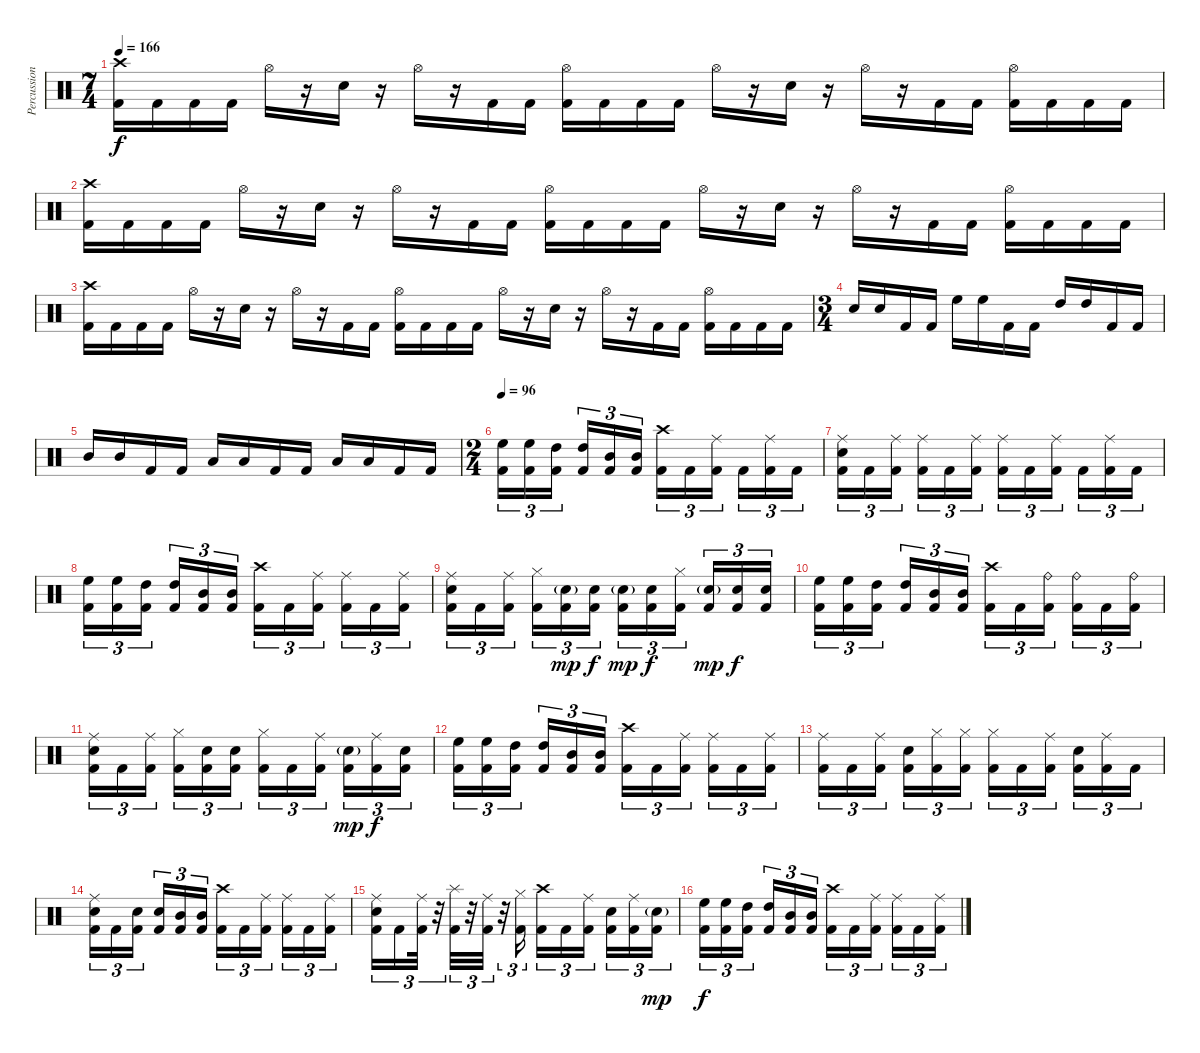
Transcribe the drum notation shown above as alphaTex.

\track ("Percussion" "Percussion") {instrument percussion}
\staff {score}
\articulation defaults
\ts (7 4)
\tempo 166
\clef neutral
\ks c
("Crash high (hit)" "Kick (hit) 2").16{dy f} "Kick (hit) 2".16 "Kick (hit) 2".16 "Kick (hit) 2".16 "Hi-Hat (open)".16 r.16 "Electric Snare (hit)".16 r.16 "Hi-Hat (open)".16 r.16 "Kick (hit) 2".16 "Kick (hit) 2".16 ("Hi-Hat (open)" "Kick (hit) 2").16 "Kick (hit) 2".16 "Kick (hit) 2".16 "Kick (hit) 2".16 "Hi-Hat (open)".16 r.16 "Electric Snare (hit)".16 r.16 "Hi-Hat (open)".16 r.16 "Kick (hit) 2".16 "Kick (hit) 2".16 ("Hi-Hat (open)" "Kick (hit) 2").16 "Kick (hit) 2".16 "Kick (hit) 2".16 "Kick (hit) 2".16 |
("Crash high (hit)" "Kick (hit) 2").16 "Kick (hit) 2".16 "Kick (hit) 2".16 "Kick (hit) 2".16 "Hi-Hat (open)".16 r.16 "Electric Snare (hit)".16 r.16 "Hi-Hat (open)".16 r.16 "Kick (hit) 2".16 "Kick (hit) 2".16 ("Hi-Hat (open)" "Kick (hit) 2").16 "Kick (hit) 2".16 "Kick (hit) 2".16 "Kick (hit) 2".16 "Hi-Hat (open)".16 r.16 "Electric Snare (hit)".16 r.16 "Hi-Hat (open)".16 r.16 "Kick (hit) 2".16 "Kick (hit) 2".16 ("Hi-Hat (open)" "Kick (hit) 2").16 "Kick (hit) 2".16 "Kick (hit) 2".16 "Kick (hit) 2".16 |
("Crash high (hit)" "Kick (hit) 2").16 "Kick (hit) 2".16 "Kick (hit) 2".16 "Kick (hit) 2".16 "Hi-Hat (open)".16 r.16 "Electric Snare (hit)".16 r.16 "Hi-Hat (open)".16 r.16 "Kick (hit) 2".16 "Kick (hit) 2".16 ("Hi-Hat (open)" "Kick (hit) 2").16 "Kick (hit) 2".16 "Kick (hit) 2".16 "Kick (hit) 2".16 "Hi-Hat (open)".16 r.16 "Electric Snare (hit)".16 r.16 "Hi-Hat (open)".16 r.16 "Kick (hit) 2".16 "Kick (hit) 2".16 ("Hi-Hat (open)" "Kick (hit) 2").16 "Kick (hit) 2".16 "Kick (hit) 2".16 "Kick (hit) 2".16 |
\ts (3 4)
"Electric Snare (hit)".16 "Electric Snare (hit)".16 "Kick (hit) 2".16 "Kick (hit) 2".16 "High Floor Tom (hit)".16 "High Floor Tom (hit)".16 "Kick (hit) 2".16 "Kick (hit) 2".16 "High Tom (hit)".16 "High Tom (hit)".16 "Kick (hit) 2".16 "Kick (hit) 2".16 |
"Mid Tom (hit)".16 "Mid Tom (hit)".16 "Kick (hit) 2".16 "Kick (hit) 2".16 "Low Tom (hit)".16 "Low Tom (hit)".16 "Kick (hit) 2".16 "Kick (hit) 2".16 "Low Floor Tom (hit)".16 "Low Floor Tom (hit)".16 "Kick (hit) 2".16 "Kick (hit) 2".16 |
\ts (2 4)
\tempo 96
("High Floor Tom (hit)" "Kick (hit) 2").16{tu (3 2)} ("High Floor Tom (hit)" "Kick (hit) 2").16{tu (3 2)} ("High Tom (hit)" "Kick (hit) 2").16{tu (3 2)} ("High Tom (hit)" "Kick (hit) 2").16{tu (3 2)} ("Mid Tom (hit)" "Kick (hit) 2").16{tu (3 2)} ("Mid Tom (hit)" "Kick (hit) 2").16{tu (3 2)} ("Crash high (hit)" "Kick (hit) 2").16{tu (3 2)} "Kick (hit) 2".16{tu (3 2)} ("Ride (middle)" "Kick (hit) 2").16{tu (3 2)} "Kick (hit) 2".16{tu (3 2)} ("Ride (middle)" "Kick (hit) 2").16{tu (3 2)} "Kick (hit) 2".16{tu (3 2)} |
("Ride (middle)" "Electric Snare (hit)" "Kick (hit) 2").16{tu (3 2)} "Kick (hit) 2".16{tu (3 2)} ("Ride (middle)" "Kick (hit) 2").16{tu (3 2)} ("Ride (middle)" "Kick (hit) 2").16{tu (3 2)} "Kick (hit) 2".16{tu (3 2)} ("Ride (middle)" "Kick (hit) 2").16{tu (3 2)} ("Ride (middle)" "Kick (hit) 2").16{tu (3 2)} "Kick (hit) 2".16{tu (3 2)} ("Ride (middle)" "Kick (hit) 2").16{tu (3 2)} "Kick (hit) 2".16{tu (3 2)} ("Ride (middle)" "Kick (hit) 2").16{tu (3 2)} "Kick (hit) 2".16{tu (3 2)} |
("High Floor Tom (hit)" "Kick (hit) 2").16{tu (3 2)} ("High Floor Tom (hit)" "Kick (hit) 2").16{tu (3 2)} ("High Tom (hit)" "Kick (hit) 2").16{tu (3 2)} ("High Tom (hit)" "Kick (hit) 2").16{tu (3 2)} ("Mid Tom (hit)" "Kick (hit) 2").16{tu (3 2)} ("Mid Tom (hit)" "Kick (hit) 2").16{tu (3 2)} ("Crash high (hit)" "Kick (hit) 2").16{tu (3 2)} "Kick (hit) 2".16{tu (3 2)} ("Ride (middle)" "Kick (hit) 2").16{tu (3 2)} ("Ride (middle)" "Kick (hit) 2").16{tu (3 2)} "Kick (hit) 2".16{tu (3 2)} ("Ride (middle)" "Kick (hit) 2").16{tu (3 2)} |
("Ride (middle)" "Electric Snare (hit)" "Kick (hit) 2").16{tu (3 2)} "Kick (hit) 2".16{tu (3 2)} ("Ride (middle)" "Kick (hit) 2").16{tu (3 2)} ("Hi-Hat (closed)" "Kick (hit) 2").16{tu (3 2)} ("Electric Snare (hit)"{g} "Kick (hit) 2").16{tu (3 2) dy mp} ("Electric Snare (hit)" "Kick (hit) 2").16{tu (3 2) dy f} ("Electric Snare (hit)"{g} "Kick (hit) 2").16{tu (3 2) dy mp} ("Electric Snare (hit)" "Kick (hit) 2").16{tu (3 2) dy f} ("Hi-Hat (closed)" "Kick (hit) 2").16{tu (3 2)} ("Electric Snare (hit)"{g} "Kick (hit) 2").16{tu (3 2) dy mp} ("Electric Snare (hit)" "Kick (hit) 2").16{tu (3 2) dy f} ("Electric Snare (hit)" "Kick (hit) 2").16{tu (3 2)} |
("High Floor Tom (hit)" "Kick (hit) 2").16{tu (3 2)} ("High Floor Tom (hit)" "Kick (hit) 2").16{tu (3 2)} ("High Tom (hit)" "Kick (hit) 2").16{tu (3 2)} ("High Tom (hit)" "Kick (hit) 2").16{tu (3 2)} ("Mid Tom (hit)" "Kick (hit) 2").16{tu (3 2)} ("Mid Tom (hit)" "Kick (hit) 2").16{tu (3 2)} ("Crash high (hit)" "Kick (hit) 2").16{tu (3 2)} "Kick (hit) 2".16{tu (3 2)} ("Ride (bell)" "Kick (hit) 2").16{tu (3 2)} ("Ride (bell)" "Kick (hit) 2").16{tu (3 2)} "Kick (hit) 2".16{tu (3 2)} ("Ride (bell)" "Kick (hit) 2").16{tu (3 2)} |
("Ride (middle)" "Electric Snare (hit)" "Kick (hit) 2").16{tu (3 2)} "Kick (hit) 2".16{tu (3 2)} ("Ride (middle)" "Kick (hit) 2").16{tu (3 2)} ("Hi-Hat (closed)" "Kick (hit) 2").16{tu (3 2)} ("Electric Snare (hit)" "Kick (hit) 2").16{tu (3 2)} ("Electric Snare (hit)" "Kick (hit) 2").16{tu (3 2)} ("Hi-Hat (closed)" "Kick (hit) 2").16{tu (3 2)} "Kick (hit) 2".16{tu (3 2)} ("Ride (middle)" "Kick (hit) 2").16{tu (3 2)} ("Electric Snare (hit)"{g} "Kick (hit) 2").16{tu (3 2) dy mp} ("Ride (middle)" "Kick (hit) 2").16{tu (3 2) dy f} ("Electric Snare (hit)" "Kick (hit) 2").16{tu (3 2)} |
("High Floor Tom (hit)" "Kick (hit) 2").16{tu (3 2)} ("High Floor Tom (hit)" "Kick (hit) 2").16{tu (3 2)} ("High Tom (hit)" "Kick (hit) 2").16{tu (3 2)} ("High Tom (hit)" "Kick (hit) 2").16{tu (3 2)} ("Mid Tom (hit)" "Kick (hit) 2").16{tu (3 2)} ("Mid Tom (hit)" "Kick (hit) 2").16{tu (3 2)} ("Crash high (hit)" "Kick (hit) 2").16{tu (3 2)} "Kick (hit) 2".16{tu (3 2)} ("Ride (middle)" "Kick (hit) 2").16{tu (3 2)} ("Ride (middle)" "Kick (hit) 2").16{tu (3 2)} "Kick (hit) 2".16{tu (3 2)} ("Ride (middle)" "Kick (hit) 2").16{tu (3 2)} |
("Ride (middle)" "Kick (hit) 2").16{tu (3 2)} "Kick (hit) 2".16{tu (3 2)} ("Ride (middle)" "Kick (hit) 2").16{tu (3 2)} ("Electric Snare (hit)" "Kick (hit) 2").16{tu (3 2)} ("Hi-Hat (closed)" "Kick (hit) 2").16{tu (3 2)} ("Hi-Hat (closed)" "Kick (hit) 2").16{tu (3 2)} ("Hi-Hat (closed)" "Kick (hit) 2").16{tu (3 2)} "Kick (hit) 2".16{tu (3 2)} ("Ride (middle)" "Kick (hit) 2").16{tu (3 2)} ("Electric Snare (hit)" "Kick (hit) 2").16{tu (3 2)} ("Ride (middle)" "Kick (hit) 2").16{tu (3 2)} "Kick (hit) 2".16{tu (3 2)} |
("Ride (middle)" "Electric Snare (hit)" "Kick (hit) 2").16{tu (3 2)} "Kick (hit) 2".16{tu (3 2)} ("Electric Snare (hit)" "Kick (hit) 2").16{tu (3 2)} ("Electric Snare (hit)" "Kick (hit) 2").16{tu (3 2)} ("Mid Tom (hit)" "Kick (hit) 2").16{tu (3 2)} ("Mid Tom (hit)" "Kick (hit) 2").16{tu (3 2)} ("Crash high (hit)" "Kick (hit) 2").16{tu (3 2)} "Kick (hit) 2".16{tu (3 2)} ("Ride (middle)" "Kick (hit) 2").16{tu (3 2)} ("Ride (middle)" "Kick (hit) 2").16{tu (3 2)} "Kick (hit) 2".16{tu (3 2)} ("Ride (middle)" "Kick (hit) 2").16{tu (3 2)} |
("Ride (middle)" "Electric Snare (hit)" "Kick (hit) 2").16{tu (3 2)} "Kick (hit) 2".16{tu (3 2)} ("Ride (middle)" "Kick (hit) 2").32{tu (3 2)} r.32{tu (3 2)} ("Splash (hit)" "Kick (hit) 2").32{tu (3 2)} r.32{tu (3 2)} ("Ride (middle)" "Kick (hit) 2").32{tu (3 2)} r.32{tu (3 2)} ("Hi-Hat (closed)" "Kick (hit) 2").16{tu (3 2)} ("Crash high (hit)" "Kick (hit) 2").16{tu (3 2)} "Kick (hit) 2".16{tu (3 2)} ("Ride (middle)" "Kick (hit) 2").16{tu (3 2)} ("Electric Snare (hit)" "Kick (hit) 2").16{tu (3 2)} ("Ride (middle)" "Kick (hit) 2").16{tu (3 2)} ("Electric Snare (hit)"{g} "Kick (hit) 2").16{tu (3 2) dy mp} |
("High Floor Tom (hit)" "Kick (hit) 2").16{tu (3 2) dy f} ("High Floor Tom (hit)" "Kick (hit) 2").16{tu (3 2)} ("High Tom (hit)" "Kick (hit) 2").16{tu (3 2)} ("High Tom (hit)" "Kick (hit) 2").16{tu (3 2)} ("Mid Tom (hit)" "Kick (hit) 2").16{tu (3 2)} ("Mid Tom (hit)" "Kick (hit) 2").16{tu (3 2)} ("Crash high (hit)" "Kick (hit) 2").16{tu (3 2)} "Kick (hit) 2".16{tu (3 2)} ("Ride (middle)" "Kick (hit) 2").16{tu (3 2)} ("Ride (middle)" "Kick (hit) 2").16{tu (3 2)} "Kick (hit) 2".16{tu (3 2)} ("Ride (middle)" "Kick (hit) 2").16{tu (3 2)}
